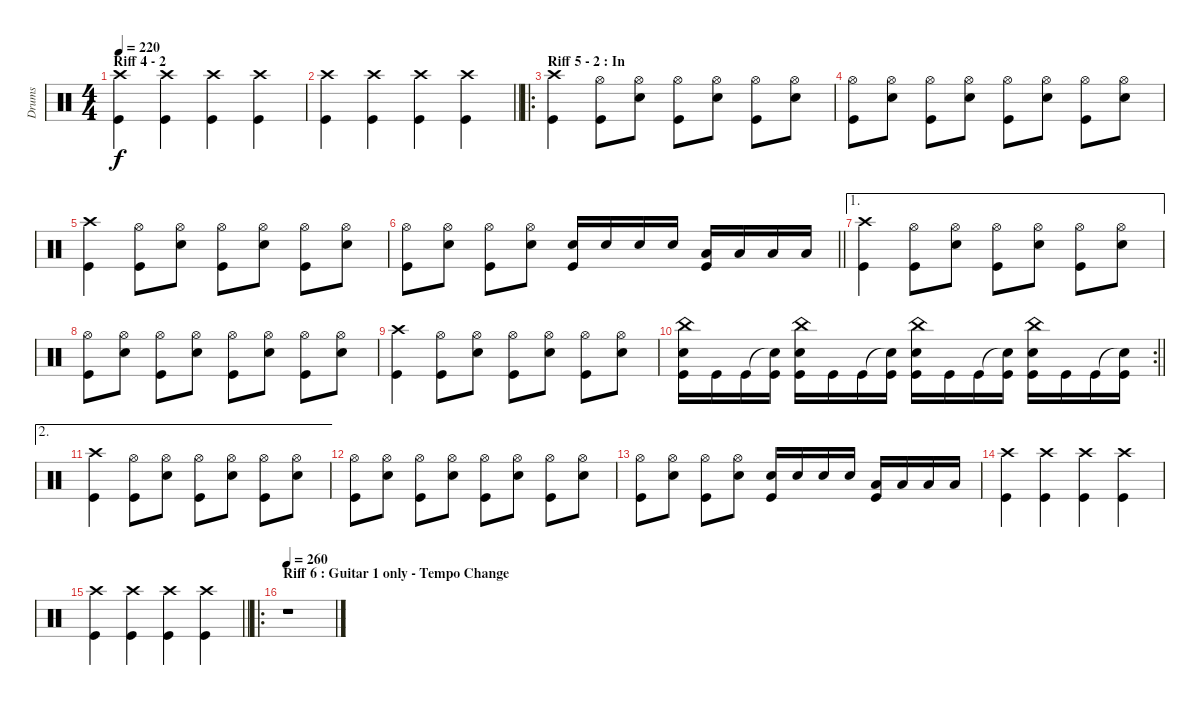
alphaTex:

\track ("Drums" "Drums") {instrument percussion}
\staff {score}
\articulation defaults
\ts (4 4)
\section ("" "Riff 4 - 2")
\tempo 220
\clef neutral
\ks c
("Crash high (hit)" "Kick (hit)").4{dy f} ("Crash high (hit)" "Kick (hit)").4 ("Crash high (hit)" "Kick (hit)").4 ("Crash high (hit)" "Kick (hit)").4 |
\barLineRight lightlight
("Crash high (hit)" "Kick (hit)").4 ("Crash high (hit)" "Kick (hit)").4 ("Crash high (hit)" "Kick (hit)").4 ("Crash high (hit)" "Kick (hit)").4 |
\ro
\section ("" "Riff 5 - 2 : In")
("Crash high (hit)" "Kick (hit)").4 ("Hi-Hat (open)" "Kick (hit)").8 ("Hi-Hat (open)" "Electric Snare (hit)").8 ("Hi-Hat (open)" "Kick (hit)").8 ("Hi-Hat (open)" "Electric Snare (hit)").8 ("Hi-Hat (open)" "Kick (hit)").8 ("Hi-Hat (open)" "Electric Snare (hit)").8 |
("Hi-Hat (open)" "Kick (hit)").8 ("Hi-Hat (open)" "Electric Snare (hit)").8 ("Hi-Hat (open)" "Kick (hit)").8 ("Hi-Hat (open)" "Electric Snare (hit)").8 ("Hi-Hat (open)" "Kick (hit)").8 ("Hi-Hat (open)" "Electric Snare (hit)").8 ("Hi-Hat (open)" "Kick (hit)").8 ("Hi-Hat (open)" "Electric Snare (hit)").8 |
("Crash high (hit)" "Kick (hit)").4 ("Hi-Hat (open)" "Kick (hit)").8 ("Hi-Hat (open)" "Electric Snare (hit)").8 ("Hi-Hat (open)" "Kick (hit)").8 ("Hi-Hat (open)" "Electric Snare (hit)").8 ("Hi-Hat (open)" "Kick (hit)").8 ("Hi-Hat (open)" "Electric Snare (hit)").8 |
\barLineRight lightlight
("Hi-Hat (open)" "Kick (hit)").8 ("Hi-Hat (open)" "Electric Snare (hit)").8 ("Hi-Hat (open)" "Kick (hit)").8 ("Hi-Hat (open)" "Electric Snare (hit)").8 ("Electric Snare (hit)" "Kick (hit)").16 "Electric Snare (hit)".16 "Electric Snare (hit)".16 "Electric Snare (hit)".16 ("Low Tom (hit)" "Kick (hit)").16 "Low Tom (hit)".16 "Low Tom (hit)".16 "Low Tom (hit)".16 |
\ae 1
("Crash high (hit)" "Kick (hit)").4 ("Hi-Hat (open)" "Kick (hit)").8 ("Hi-Hat (open)" "Electric Snare (hit)").8 ("Hi-Hat (open)" "Kick (hit)").8 ("Hi-Hat (open)" "Electric Snare (hit)").8 ("Hi-Hat (open)" "Kick (hit)").8 ("Hi-Hat (open)" "Electric Snare (hit)").8 |
("Hi-Hat (open)" "Kick (hit)").8 ("Hi-Hat (open)" "Electric Snare (hit)").8 ("Hi-Hat (open)" "Kick (hit)").8 ("Hi-Hat (open)" "Electric Snare (hit)").8 ("Hi-Hat (open)" "Kick (hit)").8 ("Hi-Hat (open)" "Electric Snare (hit)").8 ("Hi-Hat (open)" "Kick (hit)").8 ("Hi-Hat (open)" "Electric Snare (hit)").8 |
("Crash high (hit)" "Kick (hit)").4 ("Hi-Hat (open)" "Kick (hit)").8 ("Hi-Hat (open)" "Electric Snare (hit)").8 ("Hi-Hat (open)" "Kick (hit)").8 ("Hi-Hat (open)" "Electric Snare (hit)").8 ("Hi-Hat (open)" "Kick (hit)").8 ("Hi-Hat (open)" "Electric Snare (hit)").8 |
\rc 2
\barLineRight lightlight
("China (hit)" "Electric Snare (hit)" "Kick (hit)").16 "Kick (hit)".16 "Kick (hit)".16 ("Snare (hit)"{t} "Kick (hit)").16 ("China (hit)" "Electric Snare (hit)" "Kick (hit)").16 "Kick (hit)".16 "Kick (hit)".16 ("Snare (hit)"{t} "Kick (hit)").16 ("China (hit)" "Electric Snare (hit)" "Kick (hit)").16 "Kick (hit)".16 "Kick (hit)".16 ("Snare (hit)"{t} "Kick (hit)").16 ("China (hit)" "Electric Snare (hit)" "Kick (hit)").16 "Kick (hit)".16 "Kick (hit)".16 ("Snare (hit)"{t} "Kick (hit)").16 |
\ae 2
("Crash high (hit)" "Kick (hit)").4 ("Hi-Hat (open)" "Kick (hit)").8 ("Hi-Hat (open)" "Electric Snare (hit)").8 ("Hi-Hat (open)" "Kick (hit)").8 ("Hi-Hat (open)" "Electric Snare (hit)").8 ("Hi-Hat (open)" "Kick (hit)").8 ("Hi-Hat (open)" "Electric Snare (hit)").8 |
("Hi-Hat (open)" "Kick (hit)").8 ("Hi-Hat (open)" "Electric Snare (hit)").8 ("Hi-Hat (open)" "Kick (hit)").8 ("Hi-Hat (open)" "Electric Snare (hit)").8 ("Hi-Hat (open)" "Kick (hit)").8 ("Hi-Hat (open)" "Electric Snare (hit)").8 ("Hi-Hat (open)" "Kick (hit)").8 ("Hi-Hat (open)" "Electric Snare (hit)").8 |
("Hi-Hat (open)" "Kick (hit)").8 ("Hi-Hat (open)" "Electric Snare (hit)").8 ("Hi-Hat (open)" "Kick (hit)").8 ("Hi-Hat (open)" "Electric Snare (hit)").8 ("Electric Snare (hit)" "Kick (hit)").16 "Electric Snare (hit)".16 "Electric Snare (hit)".16 "Electric Snare (hit)".16 ("Low Tom (hit)" "Kick (hit)").16 "Low Tom (hit)".16 "Low Tom (hit)".16 "Low Tom (hit)".16 |
("Crash high (hit)" "Kick (hit)").4 ("Crash high (hit)" "Kick (hit)").4 ("Crash high (hit)" "Kick (hit)").4 ("Crash high (hit)" "Kick (hit)").4 |
\barLineRight lightlight
("Crash high (hit)" "Kick (hit)").4 ("Crash high (hit)" "Kick (hit)").4 ("Crash high (hit)" "Kick (hit)").4 ("Crash high (hit)" "Kick (hit)").4 |
\ro
\section ("" "Riff 6 : Guitar 1 only - Tempo Change")
\tempo 260
r.1
